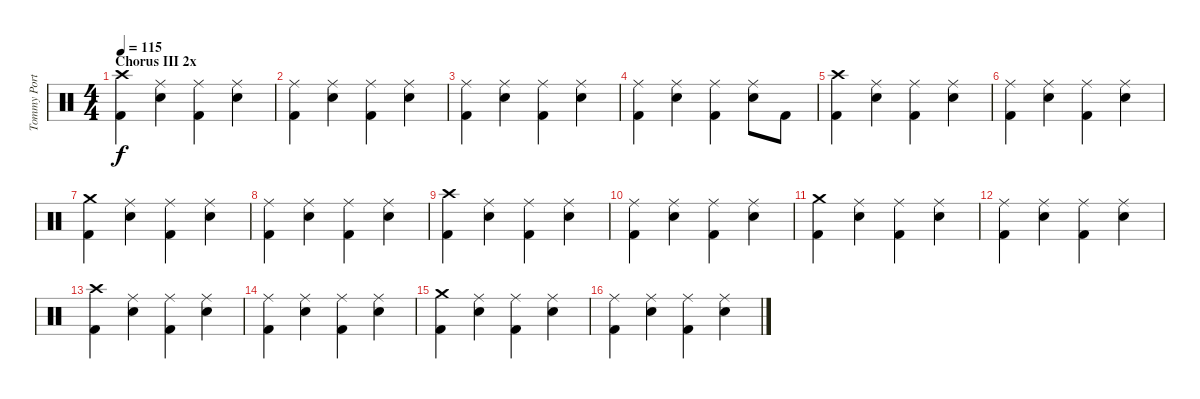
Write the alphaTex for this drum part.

\track ("Tommy Portino - Drums" "Tommy Port") {instrument percussion}
\staff {score}
\articulation defaults
\ts (4 4)
\section ("" "Chorus III 2x")
\tempo 115
\clef neutral
\ks c
("Crash high (hit)" "Kick (hit) 2").4{dy f} ("Ride (middle)" "Electric Snare (hit)").4 ("Ride (middle)" "Kick (hit) 2").4 ("Ride (middle)" "Electric Snare (hit)").4 |
("Ride (middle)" "Kick (hit) 2").4 ("Ride (middle)" "Electric Snare (hit)").4 ("Ride (middle)" "Kick (hit) 2").4 ("Ride (middle)" "Electric Snare (hit)").4 |
("Ride (middle)" "Kick (hit) 2").4 ("Ride (middle)" "Electric Snare (hit)").4 ("Ride (middle)" "Kick (hit) 2").4 ("Ride (middle)" "Electric Snare (hit)").4 |
("Ride (middle)" "Kick (hit) 2").4 ("Ride (middle)" "Electric Snare (hit)").4 ("Ride (middle)" "Kick (hit) 2").4 ("Ride (middle)" "Electric Snare (hit)").8 "Kick (hit) 2".8 |
("Crash high (hit)" "Kick (hit) 2").4 ("Ride (middle)" "Electric Snare (hit)").4 ("Ride (middle)" "Kick (hit) 2").4 ("Ride (middle)" "Electric Snare (hit)").4 |
("Ride (middle)" "Kick (hit) 2").4 ("Ride (middle)" "Electric Snare (hit)").4 ("Ride (middle)" "Kick (hit) 2").4 ("Ride (middle)" "Electric Snare (hit)").4 |
("Crash medium (hit)" "Kick (hit) 2").4 ("Ride (middle)" "Electric Snare (hit)").4 ("Ride (middle)" "Kick (hit) 2").4 ("Ride (middle)" "Electric Snare (hit)").4 |
("Ride (middle)" "Kick (hit) 2").4 ("Ride (middle)" "Electric Snare (hit)").4 ("Ride (middle)" "Kick (hit) 2").4 ("Ride (middle)" "Electric Snare (hit)").4 |
("Crash high (hit)" "Kick (hit) 2").4 ("Ride (middle)" "Electric Snare (hit)").4 ("Ride (middle)" "Kick (hit) 2").4 ("Ride (middle)" "Electric Snare (hit)").4 |
("Ride (middle)" "Kick (hit) 2").4 ("Ride (middle)" "Electric Snare (hit)").4 ("Ride (middle)" "Kick (hit) 2").4 ("Ride (middle)" "Electric Snare (hit)").4 |
("Crash medium (hit)" "Kick (hit) 2").4 ("Ride (middle)" "Electric Snare (hit)").4 ("Ride (middle)" "Kick (hit) 2").4 ("Ride (middle)" "Electric Snare (hit)").4 |
("Ride (middle)" "Kick (hit) 2").4 ("Ride (middle)" "Electric Snare (hit)").4 ("Ride (middle)" "Kick (hit) 2").4 ("Ride (middle)" "Electric Snare (hit)").4 |
("Crash high (hit)" "Kick (hit) 2").4 ("Ride (middle)" "Electric Snare (hit)").4 ("Ride (middle)" "Kick (hit) 2").4 ("Ride (middle)" "Electric Snare (hit)").4 |
("Ride (middle)" "Kick (hit) 2").4 ("Ride (middle)" "Electric Snare (hit)").4 ("Ride (middle)" "Kick (hit) 2").4 ("Ride (middle)" "Electric Snare (hit)").4 |
("Crash medium (hit)" "Kick (hit) 2").4 ("Ride (middle)" "Electric Snare (hit)").4 ("Ride (middle)" "Kick (hit) 2").4 ("Ride (middle)" "Electric Snare (hit)").4 |
("Ride (middle)" "Kick (hit) 2").4 ("Ride (middle)" "Electric Snare (hit)").4 ("Ride (middle)" "Kick (hit) 2").4 ("Ride (middle)" "Electric Snare (hit)").4
